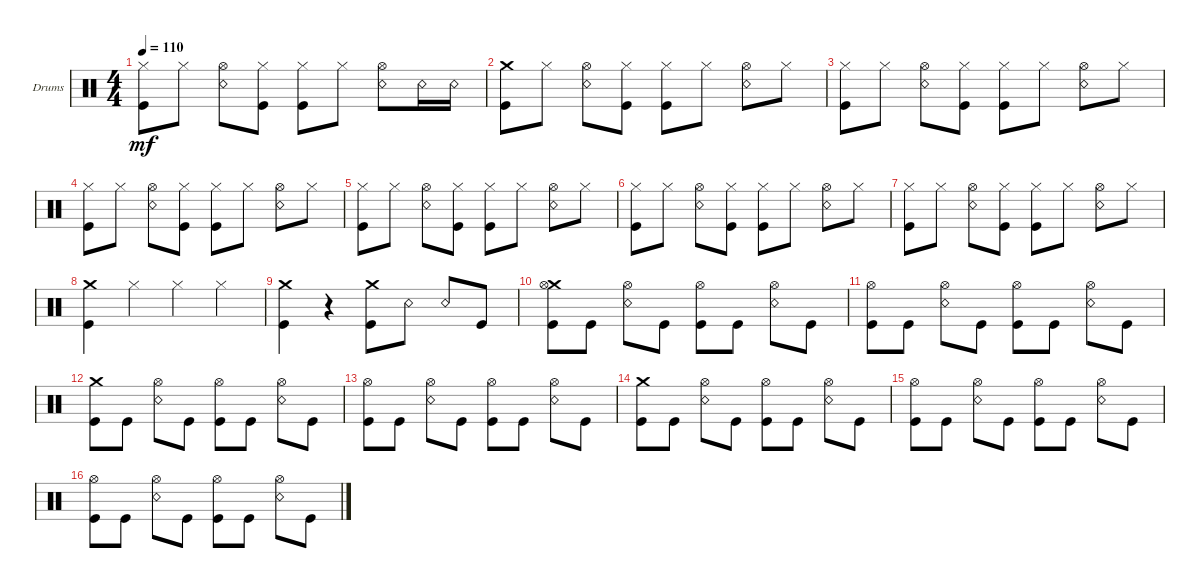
\defaultSystemsLayout 4
\bracketExtendMode groupsimilarinstruments
\firstSystemTrackNameOrientation horizontal
\otherSystemsTrackNameOrientation horizontal
\track ("Drumkit" "Drums") {instrument percussion}
\staff {score}
\articulation defaults
\ts (4 4)
\tempo 110
\clef neutral
\ks c
("Kick (hit)" "Hi-Hat (closed)").8{dy mf} "Hi-Hat (closed)".8 ("Hi-Hat (open)" "Snare (rim shot)").8 ("Kick (hit)" "Hi-Hat (closed)").8 ("Hi-Hat (closed)" "Kick (hit)").8 "Hi-Hat (closed)".8 ("Hi-Hat (open)" "Snare (rim shot)").8 "Snare (rim shot)".16 "Snare (rim shot)".16 |
("Kick (hit)" "Crash medium (hit)").8 "Hi-Hat (closed)".8 ("Hi-Hat (open)" "Snare (rim shot)").8 ("Kick (hit)" "Hi-Hat (closed)").8 ("Hi-Hat (closed)" "Kick (hit)").8 "Hi-Hat (closed)".8 ("Hi-Hat (open)" "Snare (rim shot)").8 "Hi-Hat (closed)".8 |
("Kick (hit)" "Hi-Hat (closed)").8 "Hi-Hat (closed)".8 ("Hi-Hat (open)" "Snare (rim shot)").8 ("Kick (hit)" "Hi-Hat (closed)").8 ("Hi-Hat (closed)" "Kick (hit)").8 "Hi-Hat (closed)".8 ("Hi-Hat (open)" "Snare (rim shot)").8 "Hi-Hat (closed)".8 |
("Kick (hit)" "Hi-Hat (closed)").8 "Hi-Hat (closed)".8 ("Hi-Hat (open)" "Snare (rim shot)").8 ("Kick (hit)" "Hi-Hat (closed)").8 ("Hi-Hat (closed)" "Kick (hit)").8 "Hi-Hat (closed)".8 ("Hi-Hat (open)" "Snare (rim shot)").8 "Hi-Hat (closed)".8 |
("Kick (hit)" "Hi-Hat (closed)").8 "Hi-Hat (closed)".8 ("Hi-Hat (open)" "Snare (rim shot)").8 ("Kick (hit)" "Hi-Hat (closed)").8 ("Hi-Hat (closed)" "Kick (hit)").8 "Hi-Hat (closed)".8 ("Hi-Hat (open)" "Snare (rim shot)").8 "Hi-Hat (closed)".8 |
("Kick (hit)" "Hi-Hat (closed)").8 "Hi-Hat (closed)".8 ("Hi-Hat (open)" "Snare (rim shot)").8 ("Kick (hit)" "Hi-Hat (closed)").8 ("Hi-Hat (closed)" "Kick (hit)").8 "Hi-Hat (closed)".8 ("Hi-Hat (open)" "Snare (rim shot)").8 "Hi-Hat (closed)".8 |
("Kick (hit)" "Hi-Hat (closed)").8 "Hi-Hat (closed)".8 ("Hi-Hat (open)" "Snare (rim shot)").8 ("Kick (hit)" "Hi-Hat (closed)").8 ("Hi-Hat (closed)" "Kick (hit)").8 "Hi-Hat (closed)".8 ("Hi-Hat (open)" "Snare (rim shot)").8 "Hi-Hat (closed)".8 |
("Kick (hit)" "Crash medium (hit)").4 "Hi-Hat (closed)".4 "Hi-Hat (closed)".4 "Hi-Hat (closed)".4 |
("Kick (hit)" "Crash medium (hit)").4 r.4 ("Kick (hit)" "Crash medium (hit)").8 "Snare (rim shot)".8 "Snare (rim shot)".8 "Kick (hit)".8 |
("Kick (hit)" "Crash medium (hit)" "Hi-Hat (open)").8 "Kick (hit)".8 ("Snare (rim shot)" "Hi-Hat (open)").8 "Kick (hit)".8 ("Kick (hit)" "Hi-Hat (open)").8 "Kick (hit)".8 ("Snare (rim shot)" "Hi-Hat (open)").8 "Kick (hit)".8 |
("Kick (hit)" "Hi-Hat (open)").8 "Kick (hit)".8 ("Snare (rim shot)" "Hi-Hat (open)").8 "Kick (hit)".8 ("Kick (hit)" "Hi-Hat (open)").8 "Kick (hit)".8 ("Snare (rim shot)" "Hi-Hat (open)").8 "Kick (hit)".8 |
("Kick (hit)" "Crash medium (hit)").8 "Kick (hit)".8 ("Snare (rim shot)" "Hi-Hat (open)").8 "Kick (hit)".8 ("Kick (hit)" "Hi-Hat (open)").8 "Kick (hit)".8 ("Snare (rim shot)" "Hi-Hat (open)").8 "Kick (hit)".8 |
("Kick (hit)" "Hi-Hat (open)").8 "Kick (hit)".8 ("Snare (rim shot)" "Hi-Hat (open)").8 "Kick (hit)".8 ("Kick (hit)" "Hi-Hat (open)").8 "Kick (hit)".8 ("Snare (rim shot)" "Hi-Hat (open)").8 "Kick (hit)".8 |
("Kick (hit)" "Crash medium (hit)").8 "Kick (hit)".8 ("Snare (rim shot)" "Hi-Hat (open)").8 "Kick (hit)".8 ("Kick (hit)" "Hi-Hat (open)").8 "Kick (hit)".8 ("Snare (rim shot)" "Hi-Hat (open)").8 "Kick (hit)".8 |
("Kick (hit)" "Hi-Hat (open)").8 "Kick (hit)".8 ("Snare (rim shot)" "Hi-Hat (open)").8 "Kick (hit)".8 ("Kick (hit)" "Hi-Hat (open)").8 "Kick (hit)".8 ("Snare (rim shot)" "Hi-Hat (open)").8 "Kick (hit)".8 |
("Kick (hit)" "Hi-Hat (open)").8 "Kick (hit)".8 ("Snare (rim shot)" "Hi-Hat (open)").8 "Kick (hit)".8 ("Kick (hit)" "Hi-Hat (open)").8 "Kick (hit)".8 ("Snare (rim shot)" "Hi-Hat (open)").8 "Kick (hit)".8
